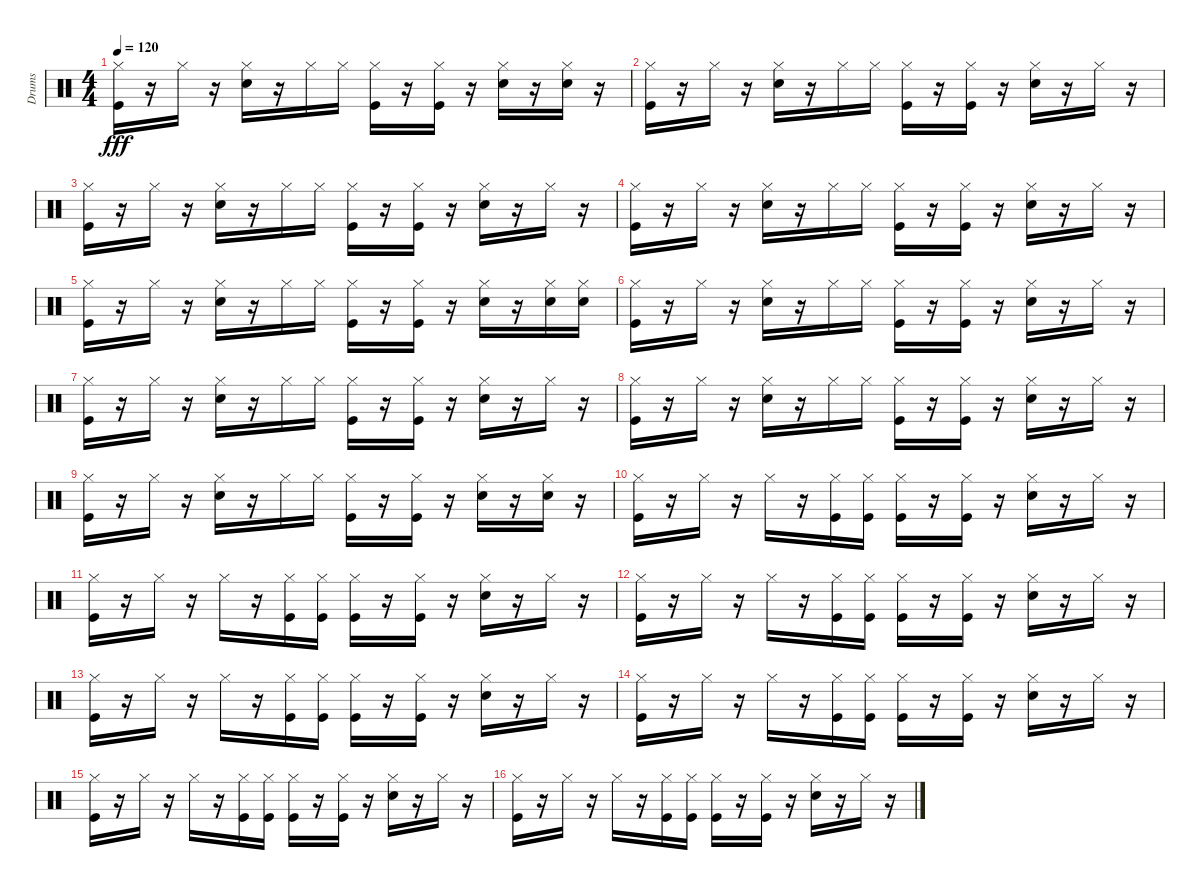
\track ("Drums" "Drums") {instrument percussion}
\staff {score}
\articulation defaults
\ts (4 4)
\tempo 120
\clef neutral
\ks c
("Kick (hit)" "Hi-Hat (closed)").16{dy fff} r.16 "Hi-Hat (closed)".16 r.16 ("Snare (hit) 2" "Hi-Hat (closed)").16 r.16 "Hi-Hat (closed)".16 "Hi-Hat (closed)".16 ("Kick (hit)" "Hi-Hat (closed)").16 r.16 ("Kick (hit)" "Hi-Hat (closed)").16 r.16 ("Snare (hit) 2" "Hi-Hat (closed)").16 r.16 ("Snare (hit) 2" "Hi-Hat (closed)").16 r.16 |
("Kick (hit)" "Hi-Hat (closed)").16 r.16 "Hi-Hat (closed)".16 r.16 ("Snare (hit) 2" "Hi-Hat (closed)").16 r.16 "Hi-Hat (closed)".16 "Hi-Hat (closed)".16 ("Kick (hit)" "Hi-Hat (closed)").16 r.16 ("Kick (hit)" "Hi-Hat (closed)").16 r.16 ("Snare (hit) 2" "Hi-Hat (closed)").16 r.16 "Hi-Hat (closed)".16 r.16 |
("Kick (hit)" "Hi-Hat (closed)").16 r.16 "Hi-Hat (closed)".16 r.16 ("Snare (hit) 2" "Hi-Hat (closed)").16 r.16 "Hi-Hat (closed)".16 "Hi-Hat (closed)".16 ("Kick (hit)" "Hi-Hat (closed)").16 r.16 ("Kick (hit)" "Hi-Hat (closed)").16 r.16 ("Snare (hit) 2" "Hi-Hat (closed)").16 r.16 "Hi-Hat (closed)".16 r.16 |
("Kick (hit)" "Hi-Hat (closed)").16 r.16 "Hi-Hat (closed)".16 r.16 ("Snare (hit) 2" "Hi-Hat (closed)").16 r.16 "Hi-Hat (closed)".16 "Hi-Hat (closed)".16 ("Kick (hit)" "Hi-Hat (closed)").16 r.16 ("Kick (hit)" "Hi-Hat (closed)").16 r.16 ("Snare (hit) 2" "Hi-Hat (closed)").16 r.16 "Hi-Hat (closed)".16 r.16 |
("Kick (hit)" "Hi-Hat (closed)").16 r.16 "Hi-Hat (closed)".16 r.16 ("Snare (hit) 2" "Hi-Hat (closed)").16 r.16 "Hi-Hat (closed)".16 "Hi-Hat (closed)".16 ("Kick (hit)" "Hi-Hat (closed)").16 r.16 ("Kick (hit)" "Hi-Hat (closed)").16 r.16 ("Snare (hit) 2" "Hi-Hat (closed)").16 r.16 ("Snare (hit) 2" "Hi-Hat (closed)").16 ("Snare (hit) 2" "Hi-Hat (closed)").16 |
("Kick (hit)" "Hi-Hat (closed)").16 r.16 "Hi-Hat (closed)".16 r.16 ("Snare (hit) 2" "Hi-Hat (closed)").16 r.16 "Hi-Hat (closed)".16 "Hi-Hat (closed)".16 ("Kick (hit)" "Hi-Hat (closed)").16 r.16 ("Kick (hit)" "Hi-Hat (closed)").16 r.16 ("Snare (hit) 2" "Hi-Hat (closed)").16 r.16 "Hi-Hat (closed)".16 r.16 |
("Kick (hit)" "Hi-Hat (closed)").16 r.16 "Hi-Hat (closed)".16 r.16 ("Snare (hit) 2" "Hi-Hat (closed)").16 r.16 "Hi-Hat (closed)".16 "Hi-Hat (closed)".16 ("Kick (hit)" "Hi-Hat (closed)").16 r.16 ("Kick (hit)" "Hi-Hat (closed)").16 r.16 ("Snare (hit) 2" "Hi-Hat (closed)").16 r.16 "Hi-Hat (closed)".16 r.16 |
("Kick (hit)" "Hi-Hat (closed)").16 r.16 "Hi-Hat (closed)".16 r.16 ("Snare (hit) 2" "Hi-Hat (closed)").16 r.16 "Hi-Hat (closed)".16 "Hi-Hat (closed)".16 ("Kick (hit)" "Hi-Hat (closed)").16 r.16 ("Kick (hit)" "Hi-Hat (closed)").16 r.16 ("Snare (hit) 2" "Hi-Hat (closed)").16 r.16 "Hi-Hat (closed)".16 r.16 |
("Kick (hit)" "Hi-Hat (closed)").16 r.16 "Hi-Hat (closed)".16 r.16 ("Snare (hit) 2" "Hi-Hat (closed)").16 r.16 "Hi-Hat (closed)".16 "Hi-Hat (closed)".16 ("Kick (hit)" "Hi-Hat (closed)").16 r.16 ("Kick (hit)" "Hi-Hat (closed)").16 r.16 ("Snare (hit) 2" "Hi-Hat (closed)").16 r.16 ("Snare (hit) 2" "Hi-Hat (closed)").16 r.16 |
("Kick (hit)" "Hi-Hat (closed)").16 r.16 "Hi-Hat (closed)".16 r.16 "Hi-Hat (closed)".16 r.16 ("Kick (hit)" "Hi-Hat (closed)").16 ("Kick (hit)" "Hi-Hat (closed)").16 ("Kick (hit)" "Hi-Hat (closed)").16 r.16 ("Kick (hit)" "Hi-Hat (closed)").16 r.16 ("Snare (hit) 2" "Hi-Hat (closed)").16 r.16 "Hi-Hat (closed)".16 r.16 |
("Kick (hit)" "Hi-Hat (closed)").16 r.16 "Hi-Hat (closed)".16 r.16 "Hi-Hat (closed)".16 r.16 ("Kick (hit)" "Hi-Hat (closed)").16 ("Kick (hit)" "Hi-Hat (closed)").16 ("Kick (hit)" "Hi-Hat (closed)").16 r.16 ("Kick (hit)" "Hi-Hat (closed)").16 r.16 ("Snare (hit) 2" "Hi-Hat (closed)").16 r.16 "Hi-Hat (closed)".16 r.16 |
("Kick (hit)" "Hi-Hat (closed)").16 r.16 "Hi-Hat (closed)".16 r.16 "Hi-Hat (closed)".16 r.16 ("Kick (hit)" "Hi-Hat (closed)").16 ("Kick (hit)" "Hi-Hat (closed)").16 ("Kick (hit)" "Hi-Hat (closed)").16 r.16 ("Kick (hit)" "Hi-Hat (closed)").16 r.16 ("Snare (hit) 2" "Hi-Hat (closed)").16 r.16 "Hi-Hat (closed)".16 r.16 |
("Kick (hit)" "Hi-Hat (closed)").16 r.16 "Hi-Hat (closed)".16 r.16 "Hi-Hat (closed)".16 r.16 ("Kick (hit)" "Hi-Hat (closed)").16 ("Kick (hit)" "Hi-Hat (closed)").16 ("Kick (hit)" "Hi-Hat (closed)").16 r.16 ("Kick (hit)" "Hi-Hat (closed)").16 r.16 ("Snare (hit) 2" "Hi-Hat (closed)").16 r.16 "Hi-Hat (closed)".16 r.16 |
("Kick (hit)" "Hi-Hat (closed)").16 r.16 "Hi-Hat (closed)".16 r.16 "Hi-Hat (closed)".16 r.16 ("Kick (hit)" "Hi-Hat (closed)").16 ("Kick (hit)" "Hi-Hat (closed)").16 ("Kick (hit)" "Hi-Hat (closed)").16 r.16 ("Kick (hit)" "Hi-Hat (closed)").16 r.16 ("Snare (hit) 2" "Hi-Hat (closed)").16 r.16 "Hi-Hat (closed)".16 r.16 |
("Kick (hit)" "Hi-Hat (closed)").16 r.16 "Hi-Hat (closed)".16 r.16 "Hi-Hat (closed)".16 r.16 ("Kick (hit)" "Hi-Hat (closed)").16 ("Kick (hit)" "Hi-Hat (closed)").16 ("Kick (hit)" "Hi-Hat (closed)").16 r.16 ("Kick (hit)" "Hi-Hat (closed)").16 r.16 ("Snare (hit) 2" "Hi-Hat (closed)").16 r.16 "Hi-Hat (closed)".16 r.16 |
("Kick (hit)" "Hi-Hat (closed)").16 r.16 "Hi-Hat (closed)".16 r.16 "Hi-Hat (closed)".16 r.16 ("Kick (hit)" "Hi-Hat (closed)").16 ("Kick (hit)" "Hi-Hat (closed)").16 ("Kick (hit)" "Hi-Hat (closed)").16 r.16 ("Kick (hit)" "Hi-Hat (closed)").16 r.16 ("Snare (hit) 2" "Hi-Hat (closed)").16 r.16 "Hi-Hat (closed)".16 r.16
